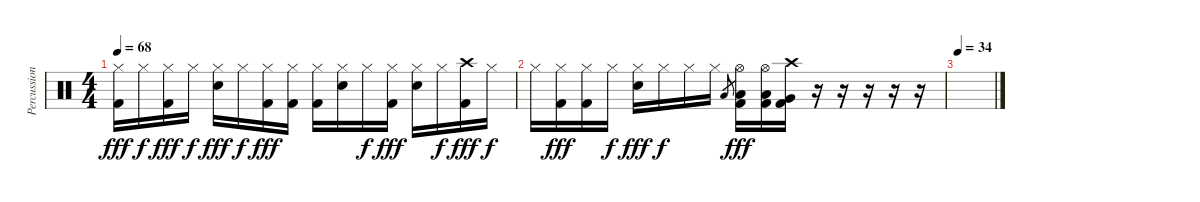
\track ("Percussion" "Percussion") {instrument percussion}
\staff {score}
\articulation defaults
\ts (4 4)
\tempo 68
\clef neutral
\ks c
("Hi-Hat (closed)" "Kick (hit) 2").16{dy fff} "Hi-Hat (closed)".16{dy f} ("Hi-Hat (closed)" "Kick (hit) 2").16{dy fff} "Hi-Hat (closed)".16{dy f} ("Hi-Hat (closed)" "Electric Snare (hit)").16{dy fff} "Hi-Hat (closed)".16{dy f} ("Hi-Hat (closed)" "Kick (hit) 2").16{dy fff} ("Hi-Hat (closed)" "Kick (hit) 2").16 ("Hi-Hat (closed)" "Kick (hit) 2").16 ("Hi-Hat (closed)" "Electric Snare (hit)").16 "Hi-Hat (closed)".16{dy f} ("Hi-Hat (closed)" "Kick (hit) 2").16{dy fff} ("Hi-Hat (closed)" "Electric Snare (hit)").16 "Hi-Hat (closed)".16{dy f} ("Crash high (hit)" "Kick (hit) 2").16{dy fff} "Hi-Hat (closed)".16{dy f} |
"Hi-Hat (closed)".16 ("Hi-Hat (closed)" "Kick (hit) 2").16{dy fff} ("Hi-Hat (closed)" "Kick (hit) 2").16 "Hi-Hat (closed)".16{dy f} ("Hi-Hat (closed)" "Electric Snare (hit)").16{dy fff} "Hi-Hat (closed)".16{dy f} "Hi-Hat (closed)".16 "Hi-Hat (closed)".16 "Low Tom (hit)".8{gr} ("Hi-Hat (open)" "Low Tom (hit)" "Kick (hit) 2").16{dy fff} ("Hi-Hat (open)" "Low Tom (hit)" "Kick (hit) 2").16 ("Crash high (hit)" "Very Low Tom (hit)" "Kick (hit) 2").16 r.16 r.16 r.16 r.16 r.16 |
\tempo 34
